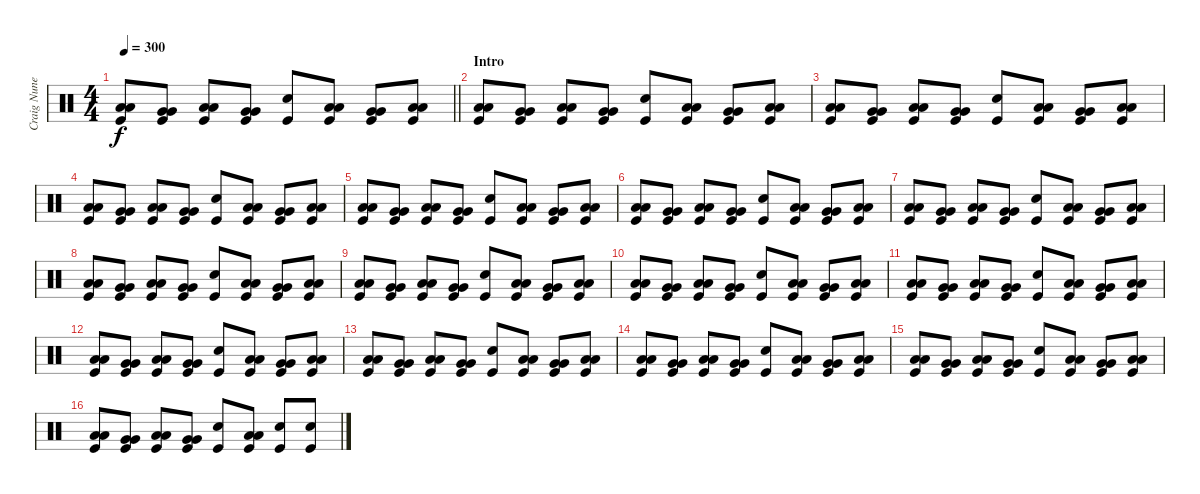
\track ("Craig Nunenmacher" "Craig Nune") {instrument percussion}
\staff {score}
\articulation defaults
\ts (4 4)
\tempo 300
\clef neutral
\barLineRight lightlight
\ks c
("Low Tom (hit)" "Low Tom (hit)" "Kick (hit)").8{dy f} ("Very Low Tom (hit)" "Very Low Tom (hit)" "Kick (hit)").8 ("Low Tom (hit)" "Low Tom (hit)" "Kick (hit)").8 ("Very Low Tom (hit)" "Very Low Tom (hit)" "Kick (hit)").8 ("Snare (hit) 2" "Kick (hit)").8 ("Low Tom (hit)" "Low Tom (hit)" "Kick (hit)").8 ("Very Low Tom (hit)" "Very Low Tom (hit)" "Kick (hit)").8 ("Low Tom (hit)" "Low Tom (hit)" "Kick (hit)").8 |
\section ("" "Intro")
("Low Tom (hit)" "Low Tom (hit)" "Kick (hit)").8 ("Very Low Tom (hit)" "Very Low Tom (hit)" "Kick (hit)").8 ("Low Tom (hit)" "Low Tom (hit)" "Kick (hit)").8 ("Very Low Tom (hit)" "Very Low Tom (hit)" "Kick (hit)").8 ("Snare (hit) 2" "Kick (hit)").8 ("Low Tom (hit)" "Low Tom (hit)" "Kick (hit)").8 ("Very Low Tom (hit)" "Very Low Tom (hit)" "Kick (hit)").8 ("Low Tom (hit)" "Low Tom (hit)" "Kick (hit)").8 |
("Low Tom (hit)" "Low Tom (hit)" "Kick (hit)").8 ("Very Low Tom (hit)" "Very Low Tom (hit)" "Kick (hit)").8 ("Low Tom (hit)" "Low Tom (hit)" "Kick (hit)").8 ("Very Low Tom (hit)" "Very Low Tom (hit)" "Kick (hit)").8 ("Snare (hit) 2" "Kick (hit)").8 ("Low Tom (hit)" "Low Tom (hit)" "Kick (hit)").8 ("Very Low Tom (hit)" "Very Low Tom (hit)" "Kick (hit)").8 ("Low Tom (hit)" "Low Tom (hit)" "Kick (hit)").8 |
("Low Tom (hit)" "Low Tom (hit)" "Kick (hit)").8 ("Very Low Tom (hit)" "Very Low Tom (hit)" "Kick (hit)").8 ("Low Tom (hit)" "Low Tom (hit)" "Kick (hit)").8 ("Very Low Tom (hit)" "Very Low Tom (hit)" "Kick (hit)").8 ("Snare (hit) 2" "Kick (hit)").8 ("Low Tom (hit)" "Low Tom (hit)" "Kick (hit)").8 ("Very Low Tom (hit)" "Very Low Tom (hit)" "Kick (hit)").8 ("Low Tom (hit)" "Low Tom (hit)" "Kick (hit)").8 |
("Low Tom (hit)" "Low Tom (hit)" "Kick (hit)").8 ("Very Low Tom (hit)" "Very Low Tom (hit)" "Kick (hit)").8 ("Low Tom (hit)" "Low Tom (hit)" "Kick (hit)").8 ("Very Low Tom (hit)" "Very Low Tom (hit)" "Kick (hit)").8 ("Snare (hit) 2" "Kick (hit)").8 ("Low Tom (hit)" "Low Tom (hit)" "Kick (hit)").8 ("Very Low Tom (hit)" "Very Low Tom (hit)" "Kick (hit)").8 ("Low Tom (hit)" "Low Tom (hit)" "Kick (hit)").8 |
("Low Tom (hit)" "Low Tom (hit)" "Kick (hit)").8 ("Very Low Tom (hit)" "Very Low Tom (hit)" "Kick (hit)").8 ("Low Tom (hit)" "Low Tom (hit)" "Kick (hit)").8 ("Very Low Tom (hit)" "Very Low Tom (hit)" "Kick (hit)").8 ("Snare (hit) 2" "Kick (hit)").8 ("Low Tom (hit)" "Low Tom (hit)" "Kick (hit)").8 ("Very Low Tom (hit)" "Very Low Tom (hit)" "Kick (hit)").8 ("Low Tom (hit)" "Low Tom (hit)" "Kick (hit)").8 |
("Low Tom (hit)" "Low Tom (hit)" "Kick (hit)").8 ("Very Low Tom (hit)" "Very Low Tom (hit)" "Kick (hit)").8 ("Low Tom (hit)" "Low Tom (hit)" "Kick (hit)").8 ("Very Low Tom (hit)" "Very Low Tom (hit)" "Kick (hit)").8 ("Snare (hit) 2" "Kick (hit)").8 ("Low Tom (hit)" "Low Tom (hit)" "Kick (hit)").8 ("Very Low Tom (hit)" "Very Low Tom (hit)" "Kick (hit)").8 ("Low Tom (hit)" "Low Tom (hit)" "Kick (hit)").8 |
("Low Tom (hit)" "Low Tom (hit)" "Kick (hit)").8 ("Very Low Tom (hit)" "Very Low Tom (hit)" "Kick (hit)").8 ("Low Tom (hit)" "Low Tom (hit)" "Kick (hit)").8 ("Very Low Tom (hit)" "Very Low Tom (hit)" "Kick (hit)").8 ("Snare (hit) 2" "Kick (hit)").8 ("Low Tom (hit)" "Low Tom (hit)" "Kick (hit)").8 ("Very Low Tom (hit)" "Very Low Tom (hit)" "Kick (hit)").8 ("Low Tom (hit)" "Low Tom (hit)" "Kick (hit)").8 |
("Low Tom (hit)" "Low Tom (hit)" "Kick (hit)").8 ("Very Low Tom (hit)" "Very Low Tom (hit)" "Kick (hit)").8 ("Low Tom (hit)" "Low Tom (hit)" "Kick (hit)").8 ("Very Low Tom (hit)" "Very Low Tom (hit)" "Kick (hit)").8 ("Snare (hit) 2" "Kick (hit)").8 ("Low Tom (hit)" "Low Tom (hit)" "Kick (hit)").8 ("Very Low Tom (hit)" "Very Low Tom (hit)" "Kick (hit)").8 ("Low Tom (hit)" "Low Tom (hit)" "Kick (hit)").8 |
("Low Tom (hit)" "Low Tom (hit)" "Kick (hit)").8 ("Very Low Tom (hit)" "Very Low Tom (hit)" "Kick (hit)").8 ("Low Tom (hit)" "Low Tom (hit)" "Kick (hit)").8 ("Very Low Tom (hit)" "Very Low Tom (hit)" "Kick (hit)").8 ("Snare (hit) 2" "Kick (hit)").8 ("Low Tom (hit)" "Low Tom (hit)" "Kick (hit)").8 ("Very Low Tom (hit)" "Very Low Tom (hit)" "Kick (hit)").8 ("Low Tom (hit)" "Low Tom (hit)" "Kick (hit)").8 |
("Low Tom (hit)" "Low Tom (hit)" "Kick (hit)").8 ("Very Low Tom (hit)" "Very Low Tom (hit)" "Kick (hit)").8 ("Low Tom (hit)" "Low Tom (hit)" "Kick (hit)").8 ("Very Low Tom (hit)" "Very Low Tom (hit)" "Kick (hit)").8 ("Snare (hit) 2" "Kick (hit)").8 ("Low Tom (hit)" "Low Tom (hit)" "Kick (hit)").8 ("Very Low Tom (hit)" "Very Low Tom (hit)" "Kick (hit)").8 ("Low Tom (hit)" "Low Tom (hit)" "Kick (hit)").8 |
("Low Tom (hit)" "Low Tom (hit)" "Kick (hit)").8 ("Very Low Tom (hit)" "Very Low Tom (hit)" "Kick (hit)").8 ("Low Tom (hit)" "Low Tom (hit)" "Kick (hit)").8 ("Very Low Tom (hit)" "Very Low Tom (hit)" "Kick (hit)").8 ("Snare (hit) 2" "Kick (hit)").8 ("Low Tom (hit)" "Low Tom (hit)" "Kick (hit)").8 ("Very Low Tom (hit)" "Very Low Tom (hit)" "Kick (hit)").8 ("Low Tom (hit)" "Low Tom (hit)" "Kick (hit)").8 |
("Low Tom (hit)" "Low Tom (hit)" "Kick (hit)").8 ("Very Low Tom (hit)" "Very Low Tom (hit)" "Kick (hit)").8 ("Low Tom (hit)" "Low Tom (hit)" "Kick (hit)").8 ("Very Low Tom (hit)" "Very Low Tom (hit)" "Kick (hit)").8 ("Snare (hit) 2" "Kick (hit)").8 ("Low Tom (hit)" "Low Tom (hit)" "Kick (hit)").8 ("Very Low Tom (hit)" "Very Low Tom (hit)" "Kick (hit)").8 ("Low Tom (hit)" "Low Tom (hit)" "Kick (hit)").8 |
("Low Tom (hit)" "Low Tom (hit)" "Kick (hit)").8 ("Very Low Tom (hit)" "Very Low Tom (hit)" "Kick (hit)").8 ("Low Tom (hit)" "Low Tom (hit)" "Kick (hit)").8 ("Very Low Tom (hit)" "Very Low Tom (hit)" "Kick (hit)").8 ("Snare (hit) 2" "Kick (hit)").8 ("Low Tom (hit)" "Low Tom (hit)" "Kick (hit)").8 ("Very Low Tom (hit)" "Very Low Tom (hit)" "Kick (hit)").8 ("Low Tom (hit)" "Low Tom (hit)" "Kick (hit)").8 |
("Low Tom (hit)" "Low Tom (hit)" "Kick (hit)").8 ("Very Low Tom (hit)" "Very Low Tom (hit)" "Kick (hit)").8 ("Low Tom (hit)" "Low Tom (hit)" "Kick (hit)").8 ("Very Low Tom (hit)" "Very Low Tom (hit)" "Kick (hit)").8 ("Snare (hit) 2" "Kick (hit)").8 ("Low Tom (hit)" "Low Tom (hit)" "Kick (hit)").8 ("Very Low Tom (hit)" "Very Low Tom (hit)" "Kick (hit)").8 ("Low Tom (hit)" "Low Tom (hit)" "Kick (hit)").8 |
("Low Tom (hit)" "Low Tom (hit)" "Kick (hit)").8 ("Very Low Tom (hit)" "Very Low Tom (hit)" "Kick (hit)").8 ("Low Tom (hit)" "Low Tom (hit)" "Kick (hit)").8 ("Very Low Tom (hit)" "Very Low Tom (hit)" "Kick (hit)").8 ("Snare (hit) 2" "Kick (hit)").8 ("Low Tom (hit)" "Low Tom (hit)" "Kick (hit)").8 ("Snare (hit) 2" "Kick (hit)").8 ("Snare (hit) 2" "Kick (hit)").8
